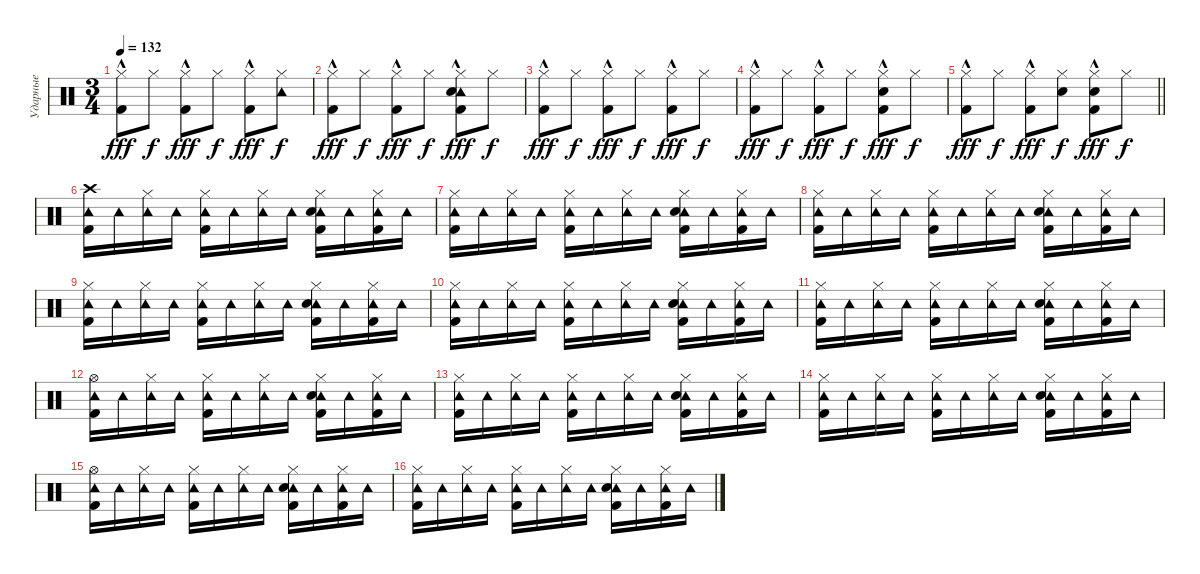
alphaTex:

\track ("Ударные" "Ударные") {instrument percussion}
\staff {score}
\articulation defaults
\ts (3 4)
\tempo 132
\clef neutral
\ks c
("Hi-Hat (closed)"{hac} "Kick (hit) 2").8{dy fff} "Hi-Hat (closed)".8{dy f} ("Hi-Hat (closed)"{hac} "Kick (hit) 2").8{dy fff} "Hi-Hat (closed)".8{dy f} ("Hi-Hat (closed)"{hac} "Kick (hit) 2").8{dy fff} ("Hi-Hat (closed)" "Tambourine (hit)").8{dy f} |
("Hi-Hat (closed)"{hac} "Kick (hit) 2").8{dy fff} "Hi-Hat (closed)".8{dy f} ("Hi-Hat (closed)"{hac} "Kick (hit) 2").8{dy fff} "Hi-Hat (closed)".8{dy f} ("Hi-Hat (closed)"{hac} "Tambourine (hit)" "Kick (hit) 2" "Electric Snare (hit)").8{dy fff} "Hi-Hat (closed)".8{dy f} |
("Hi-Hat (closed)"{hac} "Kick (hit) 2").8{dy fff} "Hi-Hat (closed)".8{dy f} ("Hi-Hat (closed)"{hac} "Kick (hit) 2").8{dy fff} "Hi-Hat (closed)".8{dy f} ("Hi-Hat (closed)"{hac} "Kick (hit) 2").8{dy fff} "Hi-Hat (closed)".8{dy f} |
("Hi-Hat (closed)"{hac} "Kick (hit) 2").8{dy fff} "Hi-Hat (closed)".8{dy f} ("Hi-Hat (closed)"{hac} "Kick (hit) 2").8{dy fff} "Hi-Hat (closed)".8{dy f} ("Hi-Hat (closed)"{hac} "Kick (hit) 2" "Electric Snare (hit)").8{dy fff} "Hi-Hat (closed)".8{dy f} |
\barLineRight lightlight
("Hi-Hat (closed)"{hac} "Kick (hit) 2").8{dy fff} "Hi-Hat (closed)".8{dy f} ("Hi-Hat (closed)"{hac} "Kick (hit) 2").8{dy fff} ("Hi-Hat (closed)" "Electric Snare (hit)").8{dy f} ("Hi-Hat (closed)"{hac} "Kick (hit) 2" "Electric Snare (hit)").8{dy fff} "Hi-Hat (closed)".8{dy f} |
\section ("" "")
("Crash high (hit)" "Tambourine (hit)" "Kick (hit) 2").16 "Tambourine (hit)".16 ("Hi-Hat (closed)" "Tambourine (hit)").16 "Tambourine (hit)".16 ("Hi-Hat (closed)" "Tambourine (hit)" "Kick (hit) 2").16 "Tambourine (hit)".16 ("Hi-Hat (closed)" "Tambourine (hit)").16 "Tambourine (hit)".16 ("Hi-Hat (closed)" "Tambourine (hit)" "Kick (hit) 2" "Electric Snare (hit)").16 "Tambourine (hit)".16 ("Hi-Hat (closed)" "Tambourine (hit)" "Kick (hit) 2").16 "Tambourine (hit)".16 |
("Hi-Hat (closed)" "Tambourine (hit)" "Kick (hit) 2").16 "Tambourine (hit)".16 ("Hi-Hat (closed)" "Tambourine (hit)").16 "Tambourine (hit)".16 ("Hi-Hat (closed)" "Tambourine (hit)" "Kick (hit) 2").16 "Tambourine (hit)".16 ("Hi-Hat (closed)" "Tambourine (hit)").16 "Tambourine (hit)".16 ("Hi-Hat (closed)" "Tambourine (hit)" "Kick (hit) 2" "Electric Snare (hit)").16 "Tambourine (hit)".16 ("Hi-Hat (closed)" "Tambourine (hit)" "Kick (hit) 2").16 "Tambourine (hit)".16 |
("Hi-Hat (closed)" "Tambourine (hit)" "Kick (hit) 2").16 "Tambourine (hit)".16 ("Hi-Hat (closed)" "Tambourine (hit)").16 "Tambourine (hit)".16 ("Hi-Hat (closed)" "Tambourine (hit)" "Kick (hit) 2").16 "Tambourine (hit)".16 ("Hi-Hat (closed)" "Tambourine (hit)").16 "Tambourine (hit)".16 ("Hi-Hat (closed)" "Tambourine (hit)" "Kick (hit) 2" "Electric Snare (hit)").16 "Tambourine (hit)".16 ("Hi-Hat (closed)" "Tambourine (hit)" "Kick (hit) 2").16 "Tambourine (hit)".16 |
("Hi-Hat (closed)" "Tambourine (hit)" "Kick (hit) 2").16 "Tambourine (hit)".16 ("Hi-Hat (closed)" "Tambourine (hit)").16 "Tambourine (hit)".16 ("Hi-Hat (closed)" "Tambourine (hit)" "Kick (hit) 2").16 "Tambourine (hit)".16 ("Hi-Hat (closed)" "Tambourine (hit)").16 "Tambourine (hit)".16 ("Hi-Hat (closed)" "Tambourine (hit)" "Kick (hit) 2" "Electric Snare (hit)").16 "Tambourine (hit)".16 ("Hi-Hat (closed)" "Tambourine (hit)" "Kick (hit) 2").16 "Tambourine (hit)".16 |
("Hi-Hat (closed)" "Tambourine (hit)" "Kick (hit) 2").16 "Tambourine (hit)".16 ("Hi-Hat (closed)" "Tambourine (hit)").16 "Tambourine (hit)".16 ("Hi-Hat (closed)" "Tambourine (hit)" "Kick (hit) 2").16 "Tambourine (hit)".16 ("Hi-Hat (closed)" "Tambourine (hit)").16 "Tambourine (hit)".16 ("Hi-Hat (closed)" "Tambourine (hit)" "Kick (hit) 2" "Electric Snare (hit)").16 "Tambourine (hit)".16 ("Hi-Hat (closed)" "Tambourine (hit)" "Kick (hit) 2").16 "Tambourine (hit)".16 |
("Hi-Hat (closed)" "Tambourine (hit)" "Kick (hit) 2").16 "Tambourine (hit)".16 ("Hi-Hat (closed)" "Tambourine (hit)").16 "Tambourine (hit)".16 ("Hi-Hat (closed)" "Tambourine (hit)" "Kick (hit) 2").16 "Tambourine (hit)".16 ("Hi-Hat (closed)" "Tambourine (hit)").16 "Tambourine (hit)".16 ("Hi-Hat (closed)" "Tambourine (hit)" "Kick (hit) 2" "Electric Snare (hit)").16 "Tambourine (hit)".16 ("Hi-Hat (closed)" "Tambourine (hit)" "Kick (hit) 2").16 "Tambourine (hit)".16 |
("Hi-Hat (open)" "Tambourine (hit)" "Kick (hit) 2").16 "Tambourine (hit)".16 ("Hi-Hat (closed)" "Tambourine (hit)").16 "Tambourine (hit)".16 ("Hi-Hat (closed)" "Tambourine (hit)" "Kick (hit) 2").16 "Tambourine (hit)".16 ("Hi-Hat (closed)" "Tambourine (hit)").16 "Tambourine (hit)".16 ("Hi-Hat (closed)" "Tambourine (hit)" "Kick (hit) 2" "Electric Snare (hit)").16 "Tambourine (hit)".16 ("Hi-Hat (closed)" "Tambourine (hit)" "Kick (hit) 2").16 "Tambourine (hit)".16 |
("Hi-Hat (closed)" "Tambourine (hit)" "Kick (hit) 2").16 "Tambourine (hit)".16 ("Hi-Hat (closed)" "Tambourine (hit)").16 "Tambourine (hit)".16 ("Hi-Hat (closed)" "Tambourine (hit)" "Kick (hit) 2").16 "Tambourine (hit)".16 ("Hi-Hat (closed)" "Tambourine (hit)").16 "Tambourine (hit)".16 ("Hi-Hat (closed)" "Tambourine (hit)" "Kick (hit) 2" "Electric Snare (hit)").16 "Tambourine (hit)".16 ("Hi-Hat (closed)" "Tambourine (hit)" "Kick (hit) 2").16 "Tambourine (hit)".16 |
("Hi-Hat (closed)" "Tambourine (hit)" "Kick (hit) 2").16 "Tambourine (hit)".16 ("Hi-Hat (closed)" "Tambourine (hit)").16 "Tambourine (hit)".16 ("Hi-Hat (closed)" "Tambourine (hit)" "Kick (hit) 2").16 "Tambourine (hit)".16 ("Hi-Hat (closed)" "Tambourine (hit)").16 "Tambourine (hit)".16 ("Hi-Hat (closed)" "Tambourine (hit)" "Kick (hit) 2" "Electric Snare (hit)").16 "Tambourine (hit)".16 ("Hi-Hat (closed)" "Tambourine (hit)" "Kick (hit) 2").16 "Tambourine (hit)".16 |
("Hi-Hat (open)" "Tambourine (hit)" "Kick (hit) 2").16 "Tambourine (hit)".16 ("Hi-Hat (closed)" "Tambourine (hit)").16 "Tambourine (hit)".16 ("Hi-Hat (closed)" "Tambourine (hit)" "Kick (hit) 2").16 "Tambourine (hit)".16 ("Hi-Hat (closed)" "Tambourine (hit)").16 "Tambourine (hit)".16 ("Hi-Hat (closed)" "Tambourine (hit)" "Kick (hit) 2" "Electric Snare (hit)").16 "Tambourine (hit)".16 ("Hi-Hat (closed)" "Tambourine (hit)" "Kick (hit) 2").16 "Tambourine (hit)".16 |
("Hi-Hat (closed)" "Tambourine (hit)" "Kick (hit) 2").16 "Tambourine (hit)".16 ("Hi-Hat (closed)" "Tambourine (hit)").16 "Tambourine (hit)".16 ("Hi-Hat (closed)" "Tambourine (hit)" "Kick (hit) 2").16 "Tambourine (hit)".16 ("Hi-Hat (closed)" "Tambourine (hit)").16 "Tambourine (hit)".16 ("Hi-Hat (closed)" "Tambourine (hit)" "Kick (hit) 2" "Electric Snare (hit)").16 "Tambourine (hit)".16 ("Hi-Hat (closed)" "Tambourine (hit)" "Kick (hit) 2").16 "Tambourine (hit)".16
